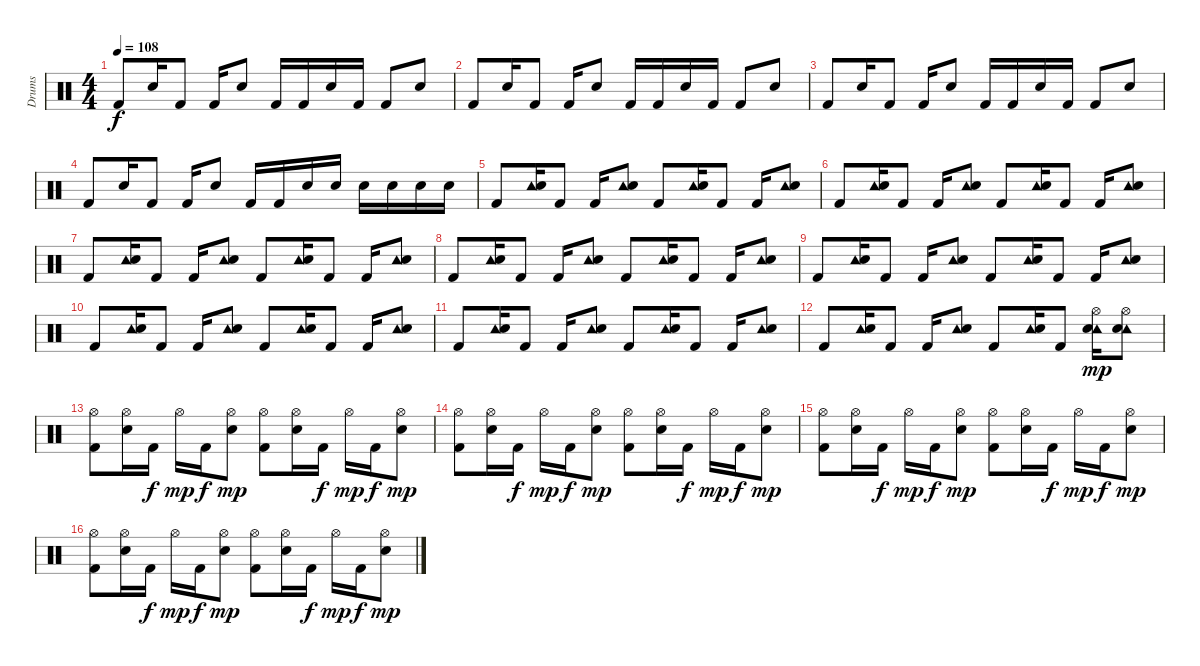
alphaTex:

\track ("Drums" "Drums") {instrument percussion}
\staff {score}
\articulation defaults
\ts (4 4)
\tempo 108
\clef neutral
\ks c "Kick (hit) 2".8{dy f} "Snare (hit) 2".16 "Kick (hit) 2".8 "Kick (hit) 2".16 "Snare (hit) 2".8 "Kick (hit) 2".16 "Kick (hit) 2".16 "Snare (hit) 2".16 "Kick (hit) 2".16 "Kick (hit) 2".8 "Snare (hit) 2".8
|
"Kick (hit) 2".8 "Snare (hit) 2".16 "Kick (hit) 2".8 "Kick (hit) 2".16 "Snare (hit) 2".8 "Kick (hit) 2".16 "Kick (hit) 2".16 "Snare (hit) 2".16 "Kick (hit) 2".16 "Kick (hit) 2".8 "Snare (hit) 2".8 |
"Kick (hit) 2".8 "Snare (hit) 2".16 "Kick (hit) 2".8 "Kick (hit) 2".16 "Snare (hit) 2".8 "Kick (hit) 2".16 "Kick (hit) 2".16 "Snare (hit) 2".16 "Kick (hit) 2".16 "Kick (hit) 2".8 "Snare (hit) 2".8 |
"Kick (hit) 2".8 "Snare (hit) 2".16 "Kick (hit) 2".8 "Kick (hit) 2".16 "Snare (hit) 2".8 "Kick (hit) 2".16 "Kick (hit) 2".16 "Snare (hit) 2".16 "Snare (hit) 2".16 "Snare (hit) 2".16 "Snare (hit) 2".16 "Snare (hit) 2".16 "Snare (hit) 2".16 |
"Kick (hit) 2".8 ("Tambourine (hit)" "Snare (hit) 2").16 "Kick (hit) 2".8 "Kick (hit) 2".16 ("Tambourine (hit)" "Snare (hit) 2").8 "Kick (hit) 2".8 ("Tambourine (hit)" "Snare (hit) 2").16 "Kick (hit) 2".8 "Kick (hit) 2".16 ("Tambourine (hit)" "Snare (hit) 2").8 |
"Kick (hit) 2".8 ("Tambourine (hit)" "Snare (hit) 2").16 "Kick (hit) 2".8 "Kick (hit) 2".16 ("Tambourine (hit)" "Snare (hit) 2").8 "Kick (hit) 2".8 ("Tambourine (hit)" "Snare (hit) 2").16 "Kick (hit) 2".8 "Kick (hit) 2".16 ("Tambourine (hit)" "Snare (hit) 2").8 |
"Kick (hit) 2".8 ("Tambourine (hit)" "Snare (hit) 2").16 "Kick (hit) 2".8 "Kick (hit) 2".16 ("Tambourine (hit)" "Snare (hit) 2").8 "Kick (hit) 2".8 ("Tambourine (hit)" "Snare (hit) 2").16 "Kick (hit) 2".8 "Kick (hit) 2".16 ("Tambourine (hit)" "Snare (hit) 2").8 |
"Kick (hit) 2".8 ("Tambourine (hit)" "Snare (hit) 2").16 "Kick (hit) 2".8 "Kick (hit) 2".16 ("Tambourine (hit)" "Snare (hit) 2").8 "Kick (hit) 2".8 ("Tambourine (hit)" "Snare (hit) 2").16 "Kick (hit) 2".8 "Kick (hit) 2".16 ("Tambourine (hit)" "Snare (hit) 2").8 |
"Kick (hit) 2".8 ("Tambourine (hit)" "Snare (hit) 2").16 "Kick (hit) 2".8 "Kick (hit) 2".16 ("Tambourine (hit)" "Snare (hit) 2").8 "Kick (hit) 2".8 ("Tambourine (hit)" "Snare (hit) 2").16 "Kick (hit) 2".8 "Kick (hit) 2".16 ("Tambourine (hit)" "Snare (hit) 2").8 |
"Kick (hit) 2".8 ("Tambourine (hit)" "Snare (hit) 2").16 "Kick (hit) 2".8 "Kick (hit) 2".16 ("Tambourine (hit)" "Snare (hit) 2").8 "Kick (hit) 2".8 ("Tambourine (hit)" "Snare (hit) 2").16 "Kick (hit) 2".8 "Kick (hit) 2".16 ("Tambourine (hit)" "Snare (hit) 2").8 |
"Kick (hit) 2".8 ("Tambourine (hit)" "Snare (hit) 2").16 "Kick (hit) 2".8 "Kick (hit) 2".16 ("Tambourine (hit)" "Snare (hit) 2").8 "Kick (hit) 2".8 ("Tambourine (hit)" "Snare (hit) 2").16 "Kick (hit) 2".8 "Kick (hit) 2".16 ("Tambourine (hit)" "Snare (hit) 2").8 |
"Kick (hit) 2".8 ("Tambourine (hit)" "Snare (hit) 2").16 "Kick (hit) 2".8 "Kick (hit) 2".16 ("Tambourine (hit)" "Snare (hit) 2").8 "Kick (hit) 2".8 ("Tambourine (hit)" "Snare (hit) 2").16 "Kick (hit) 2".8 ("Tambourine (hit)" "Hi-Hat (open)" "Snare (hit) 2").16{dy mp} ("Tambourine (hit)" "Hi-Hat (open)" "Snare (hit) 2").8 |
("Hi-Hat (open)" "Kick (hit) 2").8 ("Hi-Hat (open)" "Snare (hit) 2").16 "Kick (hit) 2".16{dy f} "Hi-Hat (open)".16{dy mp} "Kick (hit) 2".16{dy f} ("Hi-Hat (open)" "Snare (hit) 2").8{dy mp} ("Hi-Hat (open)" "Kick (hit) 2").8 ("Hi-Hat (open)" "Snare (hit) 2").16 "Kick (hit) 2".16{dy f} "Hi-Hat (open)".16{dy mp} "Kick (hit) 2".16{dy f} ("Hi-Hat (open)" "Snare (hit) 2").8{dy mp} |
("Hi-Hat (open)" "Kick (hit) 2").8 ("Hi-Hat (open)" "Snare (hit) 2").16 "Kick (hit) 2".16{dy f} "Hi-Hat (open)".16{dy mp} "Kick (hit) 2".16{dy f} ("Hi-Hat (open)" "Snare (hit) 2").8{dy mp} ("Hi-Hat (open)" "Kick (hit) 2").8 ("Hi-Hat (open)" "Snare (hit) 2").16 "Kick (hit) 2".16{dy f} "Hi-Hat (open)".16{dy mp} "Kick (hit) 2".16{dy f} ("Hi-Hat (open)" "Snare (hit) 2").8{dy mp} |
("Hi-Hat (open)" "Kick (hit) 2").8 ("Hi-Hat (open)" "Snare (hit) 2").16 "Kick (hit) 2".16{dy f} "Hi-Hat (open)".16{dy mp} "Kick (hit) 2".16{dy f} ("Hi-Hat (open)" "Snare (hit) 2").8{dy mp} ("Hi-Hat (open)" "Kick (hit) 2").8 ("Hi-Hat (open)" "Snare (hit) 2").16 "Kick (hit) 2".16{dy f} "Hi-Hat (open)".16{dy mp} "Kick (hit) 2".16{dy f} ("Hi-Hat (open)" "Snare (hit) 2").8{dy mp} |
("Hi-Hat (open)" "Kick (hit) 2").8 ("Hi-Hat (open)" "Snare (hit) 2").16 "Kick (hit) 2".16{dy f} "Hi-Hat (open)".16{dy mp} "Kick (hit) 2".16{dy f} ("Hi-Hat (open)" "Snare (hit) 2").8{dy mp} ("Hi-Hat (open)" "Kick (hit) 2").8 ("Hi-Hat (open)" "Snare (hit) 2").16 "Kick (hit) 2".16{dy f} "Hi-Hat (open)".16{dy mp} "Kick (hit) 2".16{dy f} ("Hi-Hat (open)" "Snare (hit) 2").8{dy mp}
